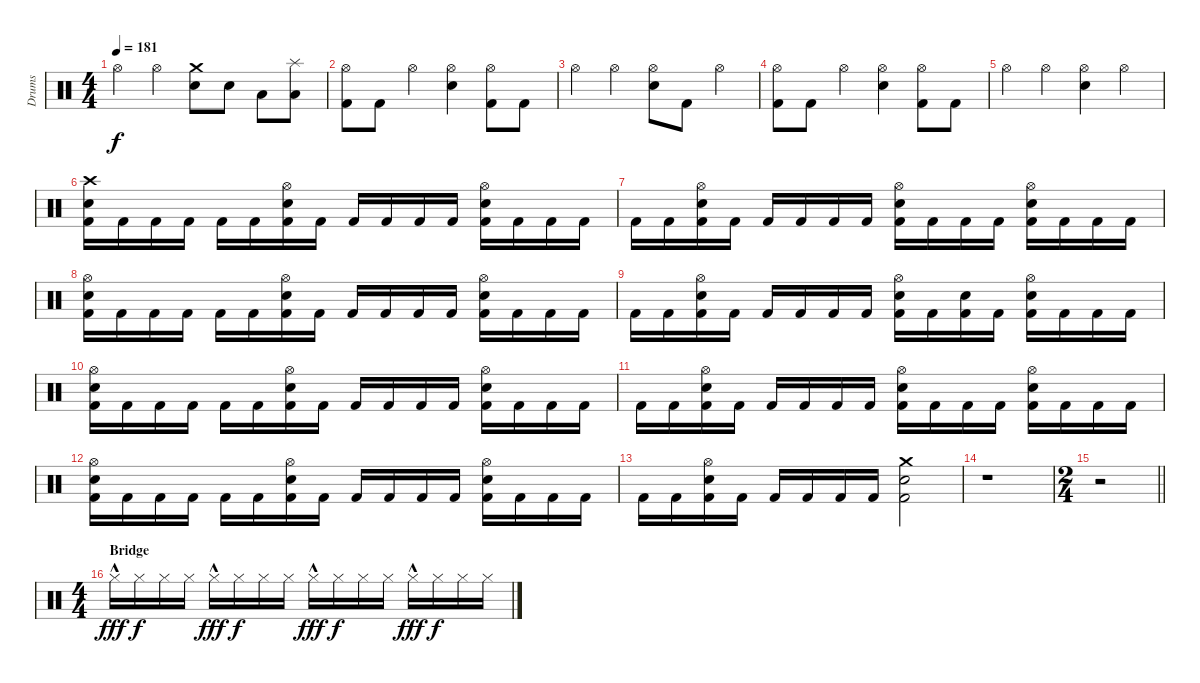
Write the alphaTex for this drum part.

\track ("Drums" "Drums") {instrument percussion}
\staff {score}
\articulation defaults
\ts (4 4)
\tempo 181
\clef neutral
\ks c "Hi-Hat (open)".4{dy f} "Hi-Hat (open)".4
("Crash medium (hit)" "Snare (hit) 2").8 "Snare (hit) 2".8 "Low Tom (hit)".8 ("Splash (hit)" "Low Tom (hit)").8 |
("Hi-Hat (open)" "Kick (hit) 2").8 "Kick (hit) 2".8 "Hi-Hat (open)".4 ("Hi-Hat (open)" "Snare (hit) 2").4 ("Hi-Hat (open)" "Kick (hit) 2").8 "Kick (hit) 2".8 |
"Hi-Hat (open)".4 "Hi-Hat (open)".4 ("Hi-Hat (open)" "Snare (hit) 2").8 "Kick (hit) 2".8 "Hi-Hat (open)".4 |
("Hi-Hat (open)" "Kick (hit) 2").8 "Kick (hit) 2".8 "Hi-Hat (open)".4 ("Hi-Hat (open)" "Snare (hit) 2").4 ("Hi-Hat (open)" "Kick (hit) 2").8 "Kick (hit) 2".8 |
"Hi-Hat (open)".4 "Hi-Hat (open)".4 ("Hi-Hat (open)" "Snare (hit) 2").4 "Hi-Hat (open)".4 |
("Crash high (hit)" "Snare (hit) 2" "Kick (hit) 2").16 "Kick (hit) 2".16 "Kick (hit) 2".16 "Kick (hit) 2".16 "Kick (hit) 2".16 "Kick (hit) 2".16 ("Hi-Hat (open)" "Snare (hit) 2" "Kick (hit) 2").16 "Kick (hit) 2".16 "Kick (hit) 2".16 "Kick (hit) 2".16 "Kick (hit) 2".16 "Kick (hit) 2".16 ("Hi-Hat (open)" "Snare (hit) 2" "Kick (hit) 2").16 "Kick (hit) 2".16 "Kick (hit) 2".16 "Kick (hit) 2".16 |
"Kick (hit) 2".16 "Kick (hit) 2".16 ("Hi-Hat (open)" "Snare (hit) 2" "Kick (hit) 2").16 "Kick (hit) 2".16 "Kick (hit) 2".16 "Kick (hit) 2".16 "Kick (hit) 2".16 "Kick (hit) 2".16 ("Hi-Hat (open)" "Snare (hit) 2" "Kick (hit) 2").16 "Kick (hit) 2".16 "Kick (hit) 2".16 "Kick (hit) 2".16 ("Hi-Hat (open)" "Snare (hit) 2" "Kick (hit) 2").16 "Kick (hit) 2".16 "Kick (hit) 2".16 "Kick (hit) 2".16 |
("Hi-Hat (open)" "Snare (hit) 2" "Kick (hit) 2").16 "Kick (hit) 2".16 "Kick (hit) 2".16 "Kick (hit) 2".16 "Kick (hit) 2".16 "Kick (hit) 2".16 ("Hi-Hat (open)" "Snare (hit) 2" "Kick (hit) 2").16 "Kick (hit) 2".16 "Kick (hit) 2".16 "Kick (hit) 2".16 "Kick (hit) 2".16 "Kick (hit) 2".16 ("Hi-Hat (open)" "Snare (hit) 2" "Kick (hit) 2").16 "Kick (hit) 2".16 "Kick (hit) 2".16 "Kick (hit) 2".16 |
"Kick (hit) 2".16 "Kick (hit) 2".16 ("Hi-Hat (open)" "Snare (hit) 2" "Kick (hit) 2").16 "Kick (hit) 2".16 "Kick (hit) 2".16 "Kick (hit) 2".16 "Kick (hit) 2".16 "Kick (hit) 2".16 ("Hi-Hat (open)" "Snare (hit) 2" "Kick (hit) 2").16 "Kick (hit) 2".16 ("Snare (hit) 2" "Kick (hit) 2").16 "Kick (hit) 2".16 ("Hi-Hat (open)" "Snare (hit) 2" "Kick (hit) 2").16 "Kick (hit) 2".16 "Kick (hit) 2".16 "Kick (hit) 2".16 |
("Hi-Hat (open)" "Snare (hit) 2" "Kick (hit) 2").16 "Kick (hit) 2".16 "Kick (hit) 2".16 "Kick (hit) 2".16 "Kick (hit) 2".16 "Kick (hit) 2".16 ("Hi-Hat (open)" "Snare (hit) 2" "Kick (hit) 2").16 "Kick (hit) 2".16 "Kick (hit) 2".16 "Kick (hit) 2".16 "Kick (hit) 2".16 "Kick (hit) 2".16 ("Hi-Hat (open)" "Snare (hit) 2" "Kick (hit) 2").16 "Kick (hit) 2".16 "Kick (hit) 2".16 "Kick (hit) 2".16 |
"Kick (hit) 2".16 "Kick (hit) 2".16 ("Hi-Hat (open)" "Snare (hit) 2" "Kick (hit) 2").16 "Kick (hit) 2".16 "Kick (hit) 2".16 "Kick (hit) 2".16 "Kick (hit) 2".16 "Kick (hit) 2".16 ("Hi-Hat (open)" "Snare (hit) 2" "Kick (hit) 2").16 "Kick (hit) 2".16 "Kick (hit) 2".16 "Kick (hit) 2".16 ("Hi-Hat (open)" "Snare (hit) 2" "Kick (hit) 2").16 "Kick (hit) 2".16 "Kick (hit) 2".16 "Kick (hit) 2".16 |
("Hi-Hat (open)" "Snare (hit) 2" "Kick (hit) 2").16 "Kick (hit) 2".16 "Kick (hit) 2".16 "Kick (hit) 2".16 "Kick (hit) 2".16 "Kick (hit) 2".16 ("Hi-Hat (open)" "Snare (hit) 2" "Kick (hit) 2").16 "Kick (hit) 2".16 "Kick (hit) 2".16 "Kick (hit) 2".16 "Kick (hit) 2".16 "Kick (hit) 2".16 ("Hi-Hat (open)" "Snare (hit) 2" "Kick (hit) 2").16 "Kick (hit) 2".16 "Kick (hit) 2".16 "Kick (hit) 2".16 |
"Kick (hit) 2".16 "Kick (hit) 2".16 ("Hi-Hat (open)" "Snare (hit) 2" "Kick (hit) 2").16 "Kick (hit) 2".16 "Kick (hit) 2".16 "Kick (hit) 2".16 "Kick (hit) 2".16 "Kick (hit) 2".16 ("Crash medium (hit)" "Snare (hit) 2" "Kick (hit) 2").2 |
r.1 |
\ts (2 4)
\barLineRight lightlight
r.2 |
\ts (4 4)
\section ("" "Bridge")
"Hi-Hat (closed)"{hac}.16{dy fff} "Hi-Hat (closed)".16{dy f} "Hi-Hat (closed)".16 "Hi-Hat (closed)".16 "Hi-Hat (closed)"{hac}.16{dy fff} "Hi-Hat (closed)".16{dy f} "Hi-Hat (closed)".16 "Hi-Hat (closed)".16 "Hi-Hat (closed)"{hac}.16{dy fff} "Hi-Hat (closed)".16{dy f} "Hi-Hat (closed)".16 "Hi-Hat (closed)".16 "Hi-Hat (closed)"{hac}.16{dy fff} "Hi-Hat (closed)".16{dy f} "Hi-Hat (closed)".16 "Hi-Hat (closed)".16
